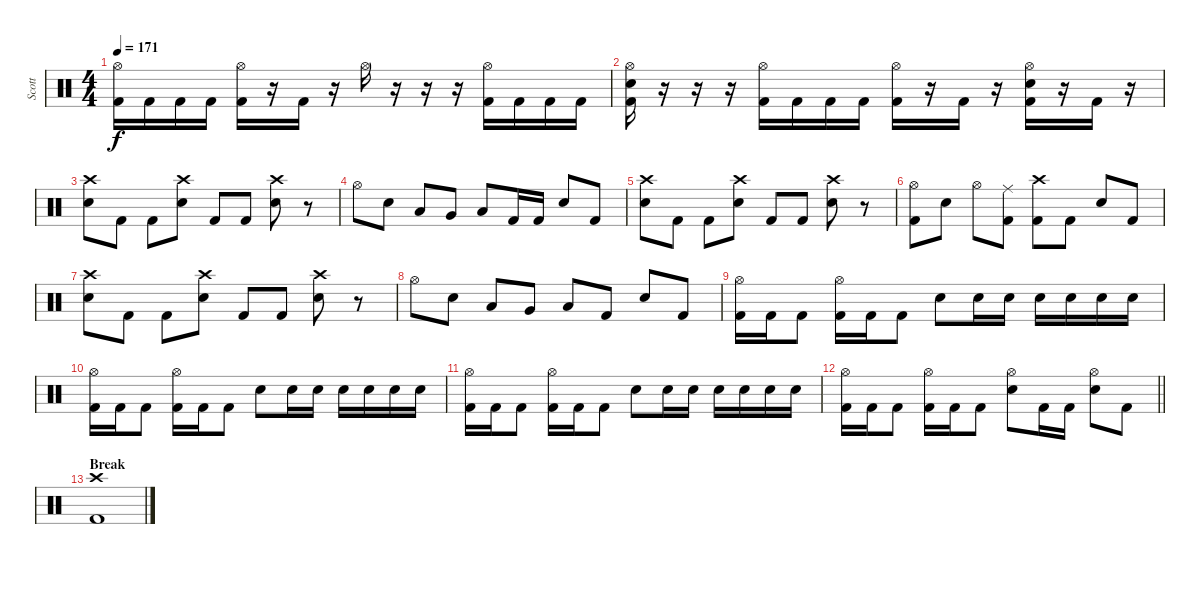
\track ("Scott" "Scott") {instrument percussion}
\staff {score}
\articulation defaults
\ts (4 4)
\tempo 171
\clef neutral
\ks c
("Hi-Hat (open)" "Kick (hit) 2").16{dy f} "Kick (hit) 2".16 "Kick (hit) 2".16 "Kick (hit) 2".16 ("Hi-Hat (open)" "Kick (hit) 2").16 r.16 "Kick (hit) 2".16 r.16 "Hi-Hat (open)".16 r.16 r.16 r.16 ("Hi-Hat (open)" "Kick (hit) 2").16 "Kick (hit) 2".16 "Kick (hit) 2".16 "Kick (hit) 2".16 |
("Hi-Hat (open)" "Electric Snare (hit)" "Kick (hit) 2").16 r.16 r.16 r.16 ("Hi-Hat (open)" "Kick (hit) 2").16 "Kick (hit) 2".16 "Kick (hit) 2".16 "Kick (hit) 2".16 ("Hi-Hat (open)" "Kick (hit) 2").16 r.16 "Kick (hit) 2".16 r.16 ("Hi-Hat (open)" "Electric Snare (hit)" "Kick (hit) 2").16 r.16 "Kick (hit) 2".16 r.16 |
("Crash high (hit)" "Electric Snare (hit)").8 "Kick (hit) 2".8 "Kick (hit) 2".8 ("Crash high (hit)" "Electric Snare (hit)").8 "Kick (hit) 2".8 "Kick (hit) 2".8 ("Crash high (hit)" "Electric Snare (hit)").8 r.8 |
"Hi-Hat (open)".8 "Electric Snare (hit)".8 "Low Tom (hit)".8 "Very Low Tom (hit)".8 "Low Floor Tom (hit)".8 "Kick (hit) 2".16 "Kick (hit) 2".16 "Electric Snare (hit)".8 "Kick (hit) 2".8 |
("Crash high (hit)" "Electric Snare (hit)").8 "Kick (hit) 2".8 "Kick (hit) 2".8 ("Crash high (hit)" "Electric Snare (hit)").8 "Kick (hit) 2".8 "Kick (hit) 2".8 ("Crash high (hit)" "Electric Snare (hit)").8 r.8 |
("Hi-Hat (open)" "Kick (hit) 2").8 "Electric Snare (hit)".8 "Hi-Hat (open)".8 ("Ride (middle)" "Kick (hit) 2").8 ("Crash high (hit)" "Kick (hit) 2").8 "Kick (hit) 2".8 "Electric Snare (hit)".8 "Kick (hit) 2".8 |
("Crash high (hit)" "Electric Snare (hit)").8 "Kick (hit) 2".8 "Kick (hit) 2".8 ("Crash high (hit)" "Electric Snare (hit)").8 "Kick (hit) 2".8 "Kick (hit) 2".8 ("Crash high (hit)" "Electric Snare (hit)").8 r.8 |
"Hi-Hat (open)".8 "Electric Snare (hit)".8 "Low Tom (hit)".8 "Very Low Tom (hit)".8 "Low Floor Tom (hit)".8 "Kick (hit) 2".8 "Electric Snare (hit)".8 "Kick (hit) 2".8 |
("Hi-Hat (open)" "Kick (hit) 2").16 "Kick (hit) 2".16 "Kick (hit) 2".8 ("Hi-Hat (open)" "Kick (hit) 2").16 "Kick (hit) 2".16 "Kick (hit) 2".8 "Electric Snare (hit)".8 "Electric Snare (hit)".16 "Electric Snare (hit)".16 "Electric Snare (hit)".16 "Electric Snare (hit)".16 "Electric Snare (hit)".16 "Electric Snare (hit)".16 |
("Hi-Hat (open)" "Kick (hit) 2").16 "Kick (hit) 2".16 "Kick (hit) 2".8 ("Hi-Hat (open)" "Kick (hit) 2").16 "Kick (hit) 2".16 "Kick (hit) 2".8 "Electric Snare (hit)".8 "Electric Snare (hit)".16 "Electric Snare (hit)".16 "Electric Snare (hit)".16 "Electric Snare (hit)".16 "Electric Snare (hit)".16 "Electric Snare (hit)".16 |
("Hi-Hat (open)" "Kick (hit) 2").16 "Kick (hit) 2".16 "Kick (hit) 2".8 ("Hi-Hat (open)" "Kick (hit) 2").16 "Kick (hit) 2".16 "Kick (hit) 2".8 "Electric Snare (hit)".8 "Electric Snare (hit)".16 "Electric Snare (hit)".16 "Electric Snare (hit)".16 "Electric Snare (hit)".16 "Electric Snare (hit)".16 "Electric Snare (hit)".16 |
\barLineRight lightlight
("Hi-Hat (open)" "Kick (hit) 2").16 "Kick (hit) 2".16 "Kick (hit) 2".8 ("Hi-Hat (open)" "Kick (hit) 2").16 "Kick (hit) 2".16 "Kick (hit) 2".8 ("Hi-Hat (open)" "Electric Snare (hit)").8 "Kick (hit) 2".16 "Kick (hit) 2".16 ("Hi-Hat (open)" "Electric Snare (hit)").8 "Kick (hit) 2".8 |
\section ("" "Break")
("Crash high (hit)" "Kick (hit) 2").1
